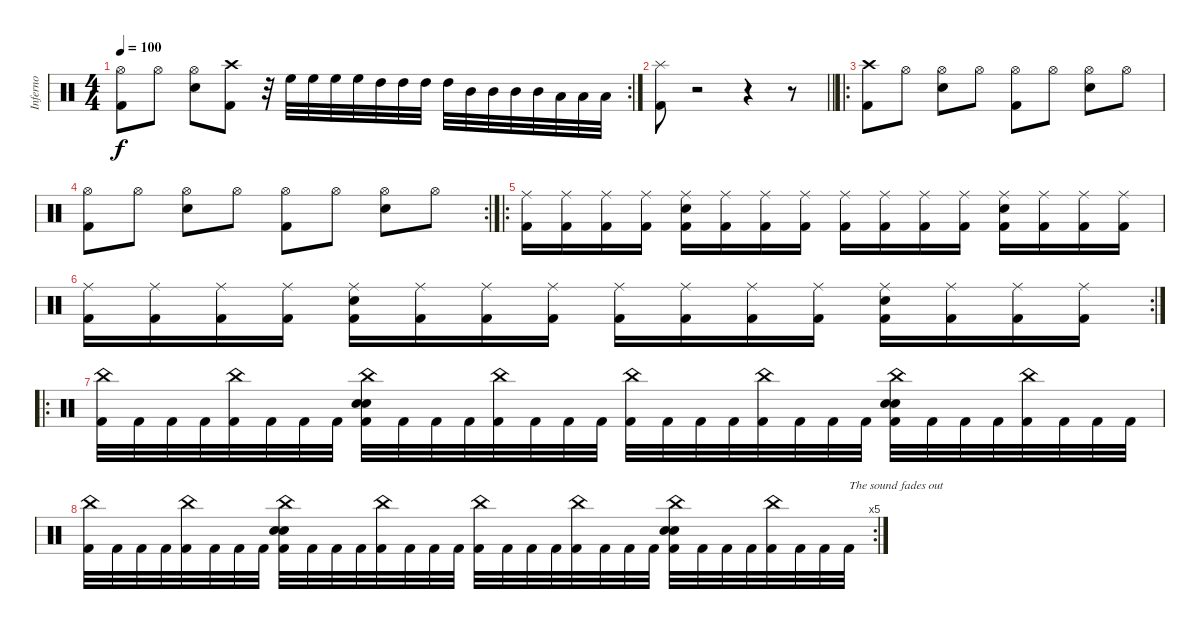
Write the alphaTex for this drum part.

\track ("Inferno" "Inferno") {instrument percussion}
\staff {score}
\articulation defaults
\rc 2
\ts (4 4)
\tempo 100
\clef neutral
\ks c
("Hi-Hat (open)" "Kick (hit) 2").8{dy f} "Hi-Hat (open)".8 ("Hi-Hat (open)" "Electric Snare (hit)").8 ("Crash high (hit)" "Kick (hit) 2").8 r.32 "High Floor Tom (hit)".32 "High Floor Tom (hit)".32 "High Floor Tom (hit)".32 "High Floor Tom (hit)".32 "High Tom (hit)".32 "High Tom (hit)".32 "High Tom (hit)".32 "High Tom (hit)".32 "Mid Tom (hit)".32 "Mid Tom (hit)".32 "Mid Tom (hit)".32 "Mid Tom (hit)".32 "Low Tom (hit)".32 "Low Tom (hit)".32 "Low Tom (hit)".32 |
\barLineRight lightlight
("Splash (hit)" "Kick (hit) 2").8 r.2 r.4 r.8 |
\ro
\section ("" "")
("Kick (hit) 2" "Crash high (hit)").8 "Hi-Hat (open)".8 ("Electric Snare (hit)" "Hi-Hat (open)").8 "Hi-Hat (open)".8 ("Kick (hit) 2" "Hi-Hat (open)").8 "Hi-Hat (open)".8 ("Electric Snare (hit)" "Hi-Hat (open)").8 "Hi-Hat (open)".8 |
\rc 2
("Kick (hit) 2" "Hi-Hat (open)").8 "Hi-Hat (open)".8 ("Electric Snare (hit)" "Hi-Hat (open)").8 "Hi-Hat (open)".8 ("Kick (hit) 2" "Hi-Hat (open)").8 "Hi-Hat (open)".8 ("Electric Snare (hit)" "Hi-Hat (open)").8 "Hi-Hat (open)".8 |
\ro
("Ride (middle)" "Kick (hit) 2").16 ("Ride (middle)" "Kick (hit) 2").16 ("Ride (middle)" "Kick (hit) 2").16 ("Ride (middle)" "Kick (hit) 2").16 ("Electric Snare (hit)" "Ride (middle)" "Kick (hit) 2").16 ("Ride (middle)" "Kick (hit) 2").16 ("Ride (middle)" "Kick (hit) 2").16 ("Ride (middle)" "Kick (hit) 2").16 ("Ride (middle)" "Kick (hit) 2").16 ("Ride (middle)" "Kick (hit) 2").16 ("Ride (middle)" "Kick (hit) 2").16 ("Ride (middle)" "Kick (hit) 2").16 ("Electric Snare (hit)" "Ride (middle)" "Kick (hit) 2").16 ("Ride (middle)" "Kick (hit) 2").16 ("Ride (middle)" "Kick (hit) 2").16 ("Ride (middle)" "Kick (hit) 2").16 |
\rc 2
("Ride (middle)" "Kick (hit) 2").16 ("Ride (middle)" "Kick (hit) 2").16 ("Ride (middle)" "Kick (hit) 2").16 ("Ride (middle)" "Kick (hit) 2").16 ("Electric Snare (hit)" "Ride (middle)" "Kick (hit) 2").16 ("Ride (middle)" "Kick (hit) 2").16 ("Ride (middle)" "Kick (hit) 2").16 ("Ride (middle)" "Kick (hit) 2").16 ("Ride (middle)" "Kick (hit) 2").16 ("Ride (middle)" "Kick (hit) 2").16 ("Ride (middle)" "Kick (hit) 2").16 ("Ride (middle)" "Kick (hit) 2").16 ("Electric Snare (hit)" "Ride (middle)" "Kick (hit) 2").16 ("Ride (middle)" "Kick (hit) 2").16 ("Ride (middle)" "Kick (hit) 2").16 ("Ride (middle)" "Kick (hit) 2").16 |
\ro
("China (hit)" "Kick (hit) 2").32 "Kick (hit) 2".32 "Kick (hit) 2".32 "Kick (hit) 2".32 ("China (hit)" "Kick (hit) 2").32 "Kick (hit) 2".32 "Kick (hit) 2".32 "Kick (hit) 2".32 ("China (hit)" "Electric Snare (hit)" "Kick (hit) 2" "Electric Snare (hit)").32 "Kick (hit) 2".32 "Kick (hit) 2".32 "Kick (hit) 2".32 ("China (hit)" "Kick (hit) 2").32 "Kick (hit) 2".32 "Kick (hit) 2".32 "Kick (hit) 2".32 ("China (hit)" "Kick (hit) 2").32 "Kick (hit) 2".32 "Kick (hit) 2".32 "Kick (hit) 2".32 ("China (hit)" "Kick (hit) 2").32 "Kick (hit) 2".32 "Kick (hit) 2".32 "Kick (hit) 2".32 ("China (hit)" "Electric Snare (hit)" "Kick (hit) 2" "Electric Snare (hit)").32 "Kick (hit) 2".32 "Kick (hit) 2".32 "Kick (hit) 2".32 ("China (hit)" "Kick (hit) 2").32 "Kick (hit) 2".32 "Kick (hit) 2".32 "Kick (hit) 2".32 |
\rc 5
("China (hit)" "Kick (hit) 2").32 "Kick (hit) 2".32 "Kick (hit) 2".32 "Kick (hit) 2".32 ("China (hit)" "Kick (hit) 2").32 "Kick (hit) 2".32 "Kick (hit) 2".32 "Kick (hit) 2".32 ("China (hit)" "Electric Snare (hit)" "Kick (hit) 2" "Electric Snare (hit)").32 "Kick (hit) 2".32 "Kick (hit) 2".32 "Kick (hit) 2".32 ("China (hit)" "Kick (hit) 2").32 "Kick (hit) 2".32 "Kick (hit) 2".32 "Kick (hit) 2".32 ("China (hit)" "Kick (hit) 2").32 "Kick (hit) 2".32 "Kick (hit) 2".32 "Kick (hit) 2".32 ("China (hit)" "Kick (hit) 2").32 "Kick (hit) 2".32 "Kick (hit) 2".32 "Kick (hit) 2".32 ("China (hit)" "Electric Snare (hit)" "Kick (hit) 2" "Electric Snare (hit)").32 "Kick (hit) 2".32 "Kick (hit) 2".32 "Kick (hit) 2".32 ("China (hit)" "Kick (hit) 2").32 "Kick (hit) 2".32 "Kick (hit) 2".32 "Kick (hit) 2".32{txt "The sound fades out"}
